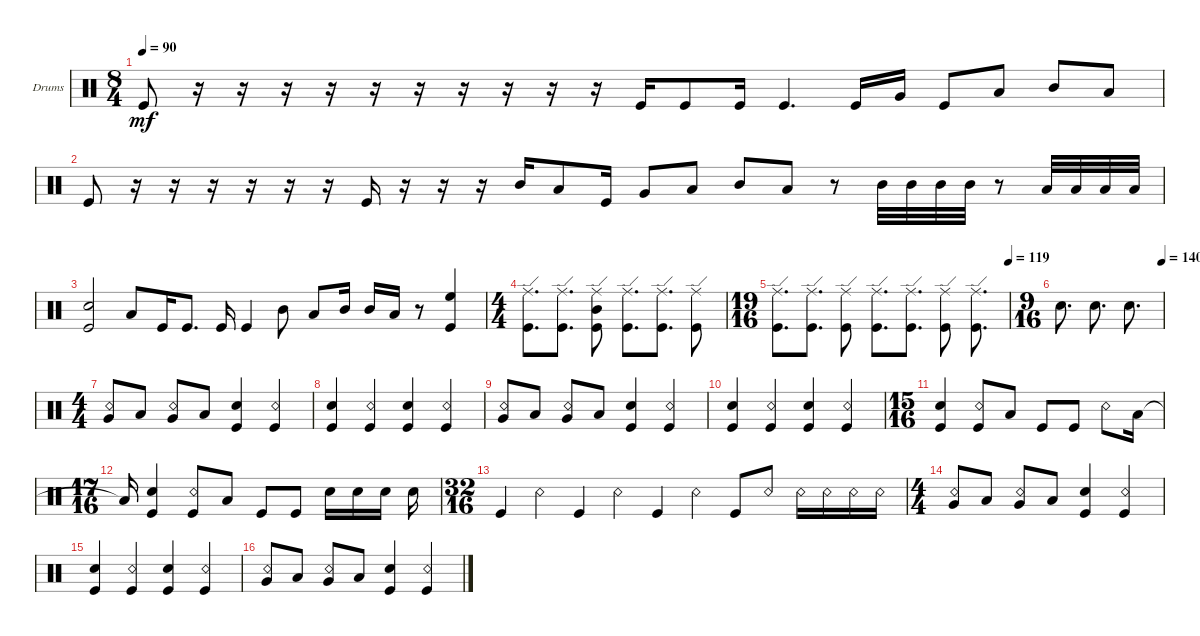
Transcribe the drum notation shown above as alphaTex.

\defaultSystemsLayout 4
\bracketExtendMode groupsimilarinstruments
\firstSystemTrackNameOrientation horizontal
\otherSystemsTrackNameOrientation horizontal
\track ("Drumkit" "Drums") {instrument percussion}
\staff {score}
\articulation defaults
\ts (8 4)
\tempo 90
\clef neutral
\ks c "Kick (hit)".8{dy mf}
r.16 r.16 r.16 r.16 r.16 r.16 r.16 r.16 r.16 r.16 "Kick (hit)".16 "Kick (hit)".8 "Kick (hit)".16 "Kick (hit)".4{d} "Kick (hit)".16 "Very Low Tom (hit)".16 "Kick (hit)".8 "Low Tom (hit)".8 "Mid Tom (hit)".8 "Low Tom (hit)".8 |
"Kick (hit)".8 r.16 r.16 r.16 r.16 r.16 r.16 "Kick (hit)".16 r.16 r.16 r.16 "Mid Tom (hit)".16 "Low Tom (hit)".8 "Kick (hit)".16 "Very Low Tom (hit)".8 "Low Tom (hit)".8 "Mid Tom (hit)".8 "Low Tom (hit)".8 r.8 "Mid Tom (hit)".32 "Mid Tom (hit)".32 "Mid Tom (hit)".32 "Mid Tom (hit)".32 r.8 "Low Tom (hit)".32 "Low Tom (hit)".32 "Low Tom (hit)".32 "Low Tom (hit)".32 |
("Kick (hit)" "Snare (hit) 2").2 "Low Tom (hit)".8 "Kick (hit)".16 "Kick (hit)".8{d} "Kick (hit)".16 "Kick (hit)".4 "Mid Tom (hit)".8 "Low Tom (hit)".8 "Mid Tom (hit)".16 "Mid Tom (hit)".16 "Low Tom (hit)".16 r.8 ("Kick (hit)" "High Floor Tom (hit)").4 |
\ts (4 4)
("Ride (edge)" "Kick (hit)").8{d} ("Ride (edge)" "Kick (hit)").8{d} ("Ride (edge)" "Mid Tom (hit)" "Kick (hit)").8 ("Ride (edge)" "Kick (hit)").8{d} ("Ride (edge)" "Kick (hit)").8{d} ("Ride (edge)" "Kick (hit)").8 |
\ts (19 16)
\tempo (119 1)
("Ride (edge)" "Kick (hit)").8{d} ("Ride (edge)" "Kick (hit)").8{d} ("Ride (edge)" "Kick (hit)").8 ("Ride (edge)" "Kick (hit)").8{d} ("Ride (edge)" "Kick (hit)").8{d} ("Ride (edge)" "Kick (hit)").8 ("Ride (edge)" "Kick (hit)").8{d} |
\ts (9 16)
\tempo (140 0.99375)
"Snare (hit) 2".8{d} "Snare (hit) 2".8{d} "Snare (hit) 2".8{d} |
\ts (4 4)
("Very Low Tom (hit)" "Snare (rim shot)").8 "Low Tom (hit)".8 ("Very Low Tom (hit)" "Snare (rim shot)").8 "Low Tom (hit)".8 ("Kick (hit)" "Snare (hit) 2").4 ("Kick (hit)" "Snare (rim shot)").4 |
("Kick (hit)" "Snare (hit) 2").4 ("Kick (hit)" "Snare (rim shot)").4 ("Kick (hit)" "Snare (hit) 2").4 ("Snare (rim shot)" "Kick (hit)").4 |
("Very Low Tom (hit)" "Snare (rim shot)").8 "Low Tom (hit)".8 ("Very Low Tom (hit)" "Snare (rim shot)").8 "Low Tom (hit)".8 ("Kick (hit)" "Snare (hit) 2").4 ("Kick (hit)" "Snare (rim shot)").4 |
("Kick (hit)" "Snare (hit) 2").4 ("Kick (hit)" "Snare (rim shot)").4 ("Kick (hit)" "Snare (hit) 2").4 ("Snare (rim shot)" "Kick (hit)").4 |
\ts (15 16)
("Kick (hit)" "Snare (hit) 2").4 ("Kick (hit)" "Snare (rim shot)").8 "Low Tom (hit)".8 "Kick (hit)".8 "Kick (hit)".8 "Snare (rim shot)".8 "Low Tom (hit)".16 |
\ts (17 16)
"Low Tom (hit)"{t}.16 ("Kick (hit)" "Snare (hit) 2").4 ("Kick (hit)" "Snare (rim shot)").8 "Low Tom (hit)".8 "Kick (hit)".8 "Kick (hit)".8 "Snare (hit) 2".16 "Snare (hit) 2".16 "Snare (hit) 2".16 "Snare (hit) 2".16 |
\ts (32 16)
"Kick (hit)".4 "Snare (rim shot)".4 "Kick (hit)".4 "Snare (rim shot)".4 "Kick (hit)".4 "Snare (rim shot)".4 "Kick (hit)".8 "Snare (rim shot)".8 "Snare (rim shot)".16 "Snare (rim shot)".16 "Snare (rim shot)".16 "Snare (rim shot)".16 |
\ts (4 4)
("Very Low Tom (hit)" "Snare (rim shot)").8 "Low Tom (hit)".8 ("Very Low Tom (hit)" "Snare (rim shot)").8 "Low Tom (hit)".8 ("Kick (hit)" "Snare (hit) 2").4 ("Kick (hit)" "Snare (rim shot)").4 |
("Kick (hit)" "Snare (hit) 2").4 ("Kick (hit)" "Snare (rim shot)").4 ("Kick (hit)" "Snare (hit) 2").4 ("Snare (rim shot)" "Kick (hit)").4 |
("Very Low Tom (hit)" "Snare (rim shot)").8 "Low Tom (hit)".8 ("Very Low Tom (hit)" "Snare (rim shot)").8 "Low Tom (hit)".8 ("Kick (hit)" "Snare (hit) 2").4 ("Kick (hit)" "Snare (rim shot)").4
